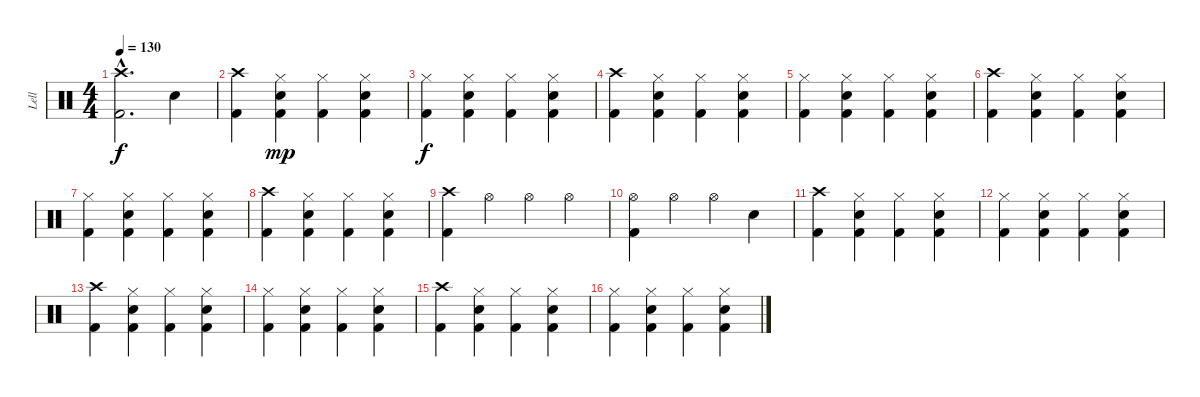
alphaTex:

\track ("Lell" "Lell") {instrument percussion}
\staff {score}
\articulation defaults
\ts (4 4)
\tempo 130
\clef neutral
\ks c
("Crash high (hit)"{hac} "Kick (hit) 2"{hac}).2{d dy f} "Snare (hit) 2".4 |
("Crash high (hit)" "Kick (hit) 2").4 ("Hi-Hat (closed)" "Snare (hit) 2" "Kick (hit) 2").4{dy mp} ("Hi-Hat (closed)" "Kick (hit) 2").4 ("Hi-Hat (closed)" "Snare (hit) 2" "Kick (hit) 2").4 |
("Hi-Hat (closed)" "Kick (hit) 2").4{dy f} ("Hi-Hat (closed)" "Snare (hit) 2" "Kick (hit) 2").4 ("Hi-Hat (closed)" "Kick (hit) 2").4 ("Hi-Hat (closed)" "Snare (hit) 2" "Kick (hit) 2").4 |
("Crash high (hit)" "Kick (hit) 2").4 ("Hi-Hat (closed)" "Snare (hit) 2" "Kick (hit) 2").4 ("Hi-Hat (closed)" "Kick (hit) 2").4 ("Hi-Hat (closed)" "Snare (hit) 2" "Kick (hit) 2").4 |
("Hi-Hat (closed)" "Kick (hit) 2").4 ("Hi-Hat (closed)" "Snare (hit) 2" "Kick (hit) 2").4 ("Hi-Hat (closed)" "Kick (hit) 2").4 ("Hi-Hat (closed)" "Snare (hit) 2" "Kick (hit) 2").4 |
("Crash high (hit)" "Kick (hit) 2").4 ("Hi-Hat (closed)" "Snare (hit) 2" "Kick (hit) 2").4 ("Hi-Hat (closed)" "Kick (hit) 2").4 ("Hi-Hat (closed)" "Snare (hit) 2" "Kick (hit) 2").4 |
("Hi-Hat (closed)" "Kick (hit) 2").4 ("Hi-Hat (closed)" "Snare (hit) 2" "Kick (hit) 2").4 ("Hi-Hat (closed)" "Kick (hit) 2").4 ("Hi-Hat (closed)" "Snare (hit) 2" "Kick (hit) 2").4 |
("Crash high (hit)" "Kick (hit) 2").4 ("Hi-Hat (closed)" "Snare (hit) 2" "Kick (hit) 2").4 ("Hi-Hat (closed)" "Kick (hit) 2").4 ("Hi-Hat (closed)" "Snare (hit) 2" "Kick (hit) 2").4 |
("Crash high (hit)" "Kick (hit) 2").4 "Hi-Hat (open)".4 "Hi-Hat (open)".4 "Hi-Hat (open)".4 |
("Hi-Hat (open)" "Kick (hit) 2").4 "Hi-Hat (open)".4 "Hi-Hat (open)".4 "Snare (hit) 2".4 |
("Crash high (hit)" "Kick (hit) 2").4 ("Hi-Hat (closed)" "Snare (hit) 2" "Kick (hit) 2").4 ("Hi-Hat (closed)" "Kick (hit) 2").4 ("Hi-Hat (closed)" "Snare (hit) 2" "Kick (hit) 2").4 |
("Hi-Hat (closed)" "Kick (hit) 2").4 ("Hi-Hat (closed)" "Snare (hit) 2" "Kick (hit) 2").4 ("Hi-Hat (closed)" "Kick (hit) 2").4 ("Hi-Hat (closed)" "Snare (hit) 2" "Kick (hit) 2").4 |
("Crash high (hit)" "Kick (hit) 2").4 ("Hi-Hat (closed)" "Snare (hit) 2" "Kick (hit) 2").4 ("Hi-Hat (closed)" "Kick (hit) 2").4 ("Hi-Hat (closed)" "Snare (hit) 2" "Kick (hit) 2").4 |
("Hi-Hat (closed)" "Kick (hit) 2").4 ("Hi-Hat (closed)" "Snare (hit) 2" "Kick (hit) 2").4 ("Hi-Hat (closed)" "Kick (hit) 2").4 ("Hi-Hat (closed)" "Snare (hit) 2" "Kick (hit) 2").4 |
("Crash high (hit)" "Kick (hit) 2").4 ("Hi-Hat (closed)" "Snare (hit) 2" "Kick (hit) 2").4 ("Hi-Hat (closed)" "Kick (hit) 2").4 ("Hi-Hat (closed)" "Snare (hit) 2" "Kick (hit) 2").4 |
("Hi-Hat (closed)" "Kick (hit) 2").4 ("Hi-Hat (closed)" "Snare (hit) 2" "Kick (hit) 2").4 ("Hi-Hat (closed)" "Kick (hit) 2").4 ("Hi-Hat (closed)" "Snare (hit) 2" "Kick (hit) 2").4
